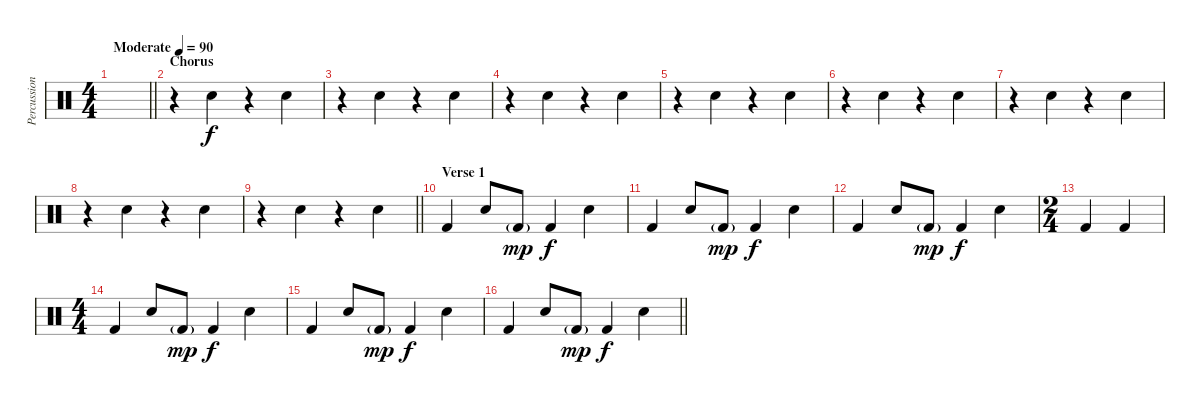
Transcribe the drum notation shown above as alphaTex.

\track ("Percussion" "Percussion") {instrument percussion}
\staff {score}
\articulation defaults
\ts (4 4)
\tempo (90 "Moderate")
\clef neutral
\barLineRight lightlight
\ks c
|
\section ("" "Chorus")
r.4 "Hand Clap (hit)".4 r.4 "Hand Clap (hit)".4 |
r.4 "Hand Clap (hit)".4 r.4 "Hand Clap (hit)".4 |
r.4 "Hand Clap (hit)".4 r.4 "Hand Clap (hit)".4 |
r.4 "Hand Clap (hit)".4 r.4 "Hand Clap (hit)".4 |
r.4 "Hand Clap (hit)".4 r.4 "Hand Clap (hit)".4 |
r.4 "Hand Clap (hit)".4 r.4 "Hand Clap (hit)".4 |
r.4 "Hand Clap (hit)".4 r.4 "Hand Clap (hit)".4 |
\barLineRight lightlight
r.4 "Hand Clap (hit)".4 r.4 "Hand Clap (hit)".4 |
\section ("" "Verse 1")
"Kick (hit) 2".4 "Snare (hit) 2".8 "Kick (hit) 2"{g}.8{dy mp} "Kick (hit) 2".4{dy f} "Snare (hit) 2".4 |
"Kick (hit) 2".4 "Snare (hit) 2".8 "Kick (hit) 2"{g}.8{dy mp} "Kick (hit) 2".4{dy f} "Snare (hit) 2".4 |
"Kick (hit) 2".4 "Snare (hit) 2".8 "Kick (hit) 2"{g}.8{dy mp} "Kick (hit) 2".4{dy f} "Snare (hit) 2".4 |
\ts (2 4)
"Kick (hit) 2".4 "Kick (hit) 2".4 |
\ts (4 4)
"Kick (hit) 2".4 "Snare (hit) 2".8 "Kick (hit) 2"{g}.8{dy mp} "Kick (hit) 2".4{dy f} "Snare (hit) 2".4 |
"Kick (hit) 2".4 "Snare (hit) 2".8 "Kick (hit) 2"{g}.8{dy mp} "Kick (hit) 2".4{dy f} "Snare (hit) 2".4 |
\barLineRight lightlight "Kick (hit) 2".4 "Snare (hit) 2".8 "Kick (hit) 2"{g}.8{dy mp} "Kick (hit) 2".4{dy f} "Snare (hit) 2".4
